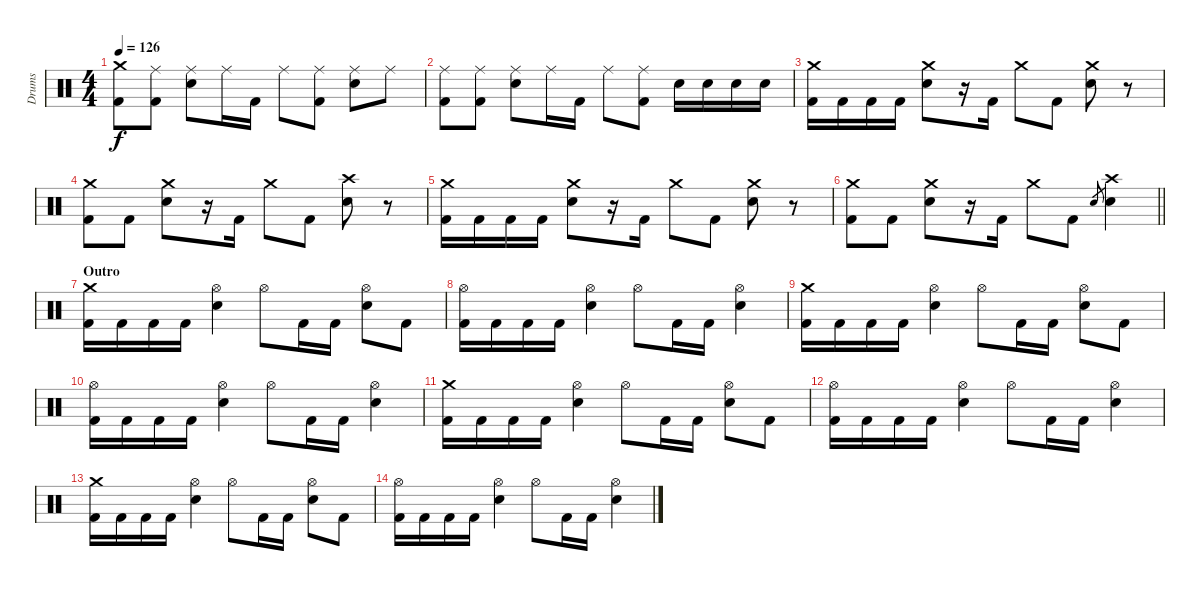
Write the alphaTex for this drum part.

\track ("Drums" "Drums") {instrument percussion}
\staff {score}
\articulation defaults
\ts (4 4)
\tempo 126
\clef neutral
\ks c
("Crash medium (hit)" "Kick (hit) 2").8{dy f} ("Ride (middle)" "Kick (hit) 2").8 ("Ride (middle)" "Electric Snare (hit)").8 "Ride (middle)".16 "Kick (hit) 2".16 "Ride (middle)".8 ("Ride (middle)" "Kick (hit) 2").8 ("Ride (middle)" "Electric Snare (hit)").8 "Ride (middle)".8 |
("Ride (middle)" "Kick (hit) 2").8 ("Ride (middle)" "Kick (hit) 2").8 ("Ride (middle)" "Electric Snare (hit)").8 "Ride (middle)".16 "Kick (hit) 2".16 "Ride (middle)".8 ("Ride (middle)" "Kick (hit) 2").8 "Electric Snare (hit)".16 "Electric Snare (hit)".16 "Electric Snare (hit)".16 "Electric Snare (hit)".16 |
("Crash medium (hit)" "Kick (hit) 2").16 "Kick (hit) 2".16 "Kick (hit) 2".16 "Kick (hit) 2".16 ("Crash medium (hit)" "Electric Snare (hit)").8 r.16 "Kick (hit) 2".16 "Crash medium (hit)".8 "Kick (hit) 2".8 ("Crash medium (hit)" "Electric Snare (hit)").8 r.8 |
("Crash medium (hit)" "Kick (hit) 2").8 "Kick (hit) 2".8 ("Crash medium (hit)" "Electric Snare (hit)").8 r.16 "Kick (hit) 2".16 "Crash medium (hit)".8 "Kick (hit) 2".8 ("Crash high (hit)" "Electric Snare (hit)").8 r.8 |
("Crash medium (hit)" "Kick (hit) 2").16 "Kick (hit) 2".16 "Kick (hit) 2".16 "Kick (hit) 2".16 ("Crash medium (hit)" "Electric Snare (hit)").8 r.16 "Kick (hit) 2".16 "Crash medium (hit)".8 "Kick (hit) 2".8 ("Crash medium (hit)" "Electric Snare (hit)").8 r.8 |
\barLineRight lightlight
("Crash medium (hit)" "Kick (hit) 2").8 "Kick (hit) 2".8 ("Crash medium (hit)" "Electric Snare (hit)").8 r.16 "Kick (hit) 2".16 "Crash medium (hit)".8 "Kick (hit) 2".8 "Electric Snare (hit)".8{gr} ("Crash high (hit)" "Electric Snare (hit)").4 |
\section ("" "Outro")
("Crash medium (hit)" "Kick (hit) 2").16 "Kick (hit) 2".16 "Kick (hit) 2".16 "Kick (hit) 2".16 ("Hi-Hat (open)" "Electric Snare (hit)").4 "Hi-Hat (open)".8 "Kick (hit) 2".16 "Kick (hit) 2".16 ("Hi-Hat (open)" "Electric Snare (hit)").8 "Kick (hit) 2".8 |
("Hi-Hat (open)" "Kick (hit) 2").16 "Kick (hit) 2".16 "Kick (hit) 2".16 "Kick (hit) 2".16 ("Hi-Hat (open)" "Electric Snare (hit)").4 "Hi-Hat (open)".8 "Kick (hit) 2".16 "Kick (hit) 2".16 ("Hi-Hat (open)" "Electric Snare (hit)").4 |
("Crash medium (hit)" "Kick (hit) 2").16 "Kick (hit) 2".16 "Kick (hit) 2".16 "Kick (hit) 2".16 ("Hi-Hat (open)" "Electric Snare (hit)").4 "Hi-Hat (open)".8 "Kick (hit) 2".16 "Kick (hit) 2".16 ("Hi-Hat (open)" "Electric Snare (hit)").8 "Kick (hit) 2".8 |
("Hi-Hat (open)" "Kick (hit) 2").16 "Kick (hit) 2".16 "Kick (hit) 2".16 "Kick (hit) 2".16 ("Hi-Hat (open)" "Electric Snare (hit)").4 "Hi-Hat (open)".8 "Kick (hit) 2".16 "Kick (hit) 2".16 ("Hi-Hat (open)" "Electric Snare (hit)").4 |
("Crash medium (hit)" "Kick (hit) 2").16 "Kick (hit) 2".16 "Kick (hit) 2".16 "Kick (hit) 2".16 ("Hi-Hat (open)" "Electric Snare (hit)").4 "Hi-Hat (open)".8 "Kick (hit) 2".16 "Kick (hit) 2".16 ("Hi-Hat (open)" "Electric Snare (hit)").8 "Kick (hit) 2".8 |
("Hi-Hat (open)" "Kick (hit) 2").16 "Kick (hit) 2".16 "Kick (hit) 2".16 "Kick (hit) 2".16 ("Hi-Hat (open)" "Electric Snare (hit)").4 "Hi-Hat (open)".8 "Kick (hit) 2".16 "Kick (hit) 2".16 ("Hi-Hat (open)" "Electric Snare (hit)").4 |
("Crash medium (hit)" "Kick (hit) 2").16 "Kick (hit) 2".16 "Kick (hit) 2".16 "Kick (hit) 2".16 ("Hi-Hat (open)" "Electric Snare (hit)").4 "Hi-Hat (open)".8 "Kick (hit) 2".16 "Kick (hit) 2".16 ("Hi-Hat (open)" "Electric Snare (hit)").8 "Kick (hit) 2".8 |
("Hi-Hat (open)" "Kick (hit) 2").16 "Kick (hit) 2".16 "Kick (hit) 2".16 "Kick (hit) 2".16 ("Hi-Hat (open)" "Electric Snare (hit)").4 "Hi-Hat (open)".8 "Kick (hit) 2".16 "Kick (hit) 2".16 ("Hi-Hat (open)" "Electric Snare (hit)").4
